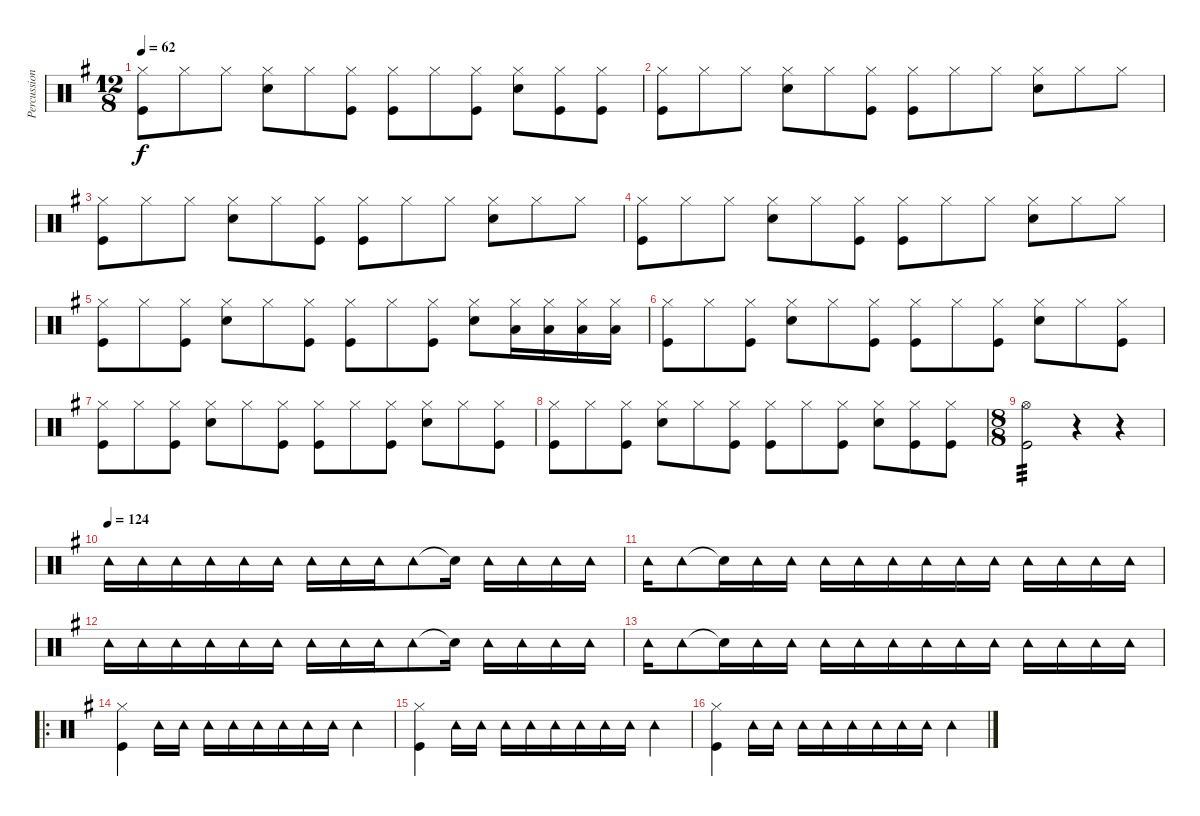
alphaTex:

\track ("Percussions" "Percussion") {instrument percussion}
\staff {score}
\articulation defaults
\ts (12 8)
\tempo 62
\clef neutral
\ks g
("Hi-Hat (closed)" "Kick (hit)").8{dy f} "Hi-Hat (closed)".8 "Hi-Hat (closed)".8 ("Hi-Hat (closed)" "Snare (hit) 2").8 "Hi-Hat (closed)".8 ("Hi-Hat (closed)" "Kick (hit)").8 ("Hi-Hat (closed)" "Kick (hit)").8 "Hi-Hat (closed)".8 ("Hi-Hat (closed)" "Kick (hit)").8 ("Hi-Hat (closed)" "Snare (hit) 2").8 ("Hi-Hat (closed)" "Kick (hit)").8 ("Hi-Hat (closed)" "Kick (hit)").8 |
("Hi-Hat (closed)" "Kick (hit)").8 "Hi-Hat (closed)".8 "Hi-Hat (closed)".8 ("Hi-Hat (closed)" "Snare (hit) 2").8 "Hi-Hat (closed)".8 ("Hi-Hat (closed)" "Kick (hit)").8 ("Hi-Hat (closed)" "Kick (hit)").8 "Hi-Hat (closed)".8 "Hi-Hat (closed)".8 ("Hi-Hat (closed)" "Snare (hit) 2").8 "Hi-Hat (closed)".8 "Hi-Hat (closed)".8 |
("Hi-Hat (closed)" "Kick (hit)").8 "Hi-Hat (closed)".8 "Hi-Hat (closed)".8 ("Hi-Hat (closed)" "Snare (hit) 2").8 "Hi-Hat (closed)".8 ("Hi-Hat (closed)" "Kick (hit)").8 ("Hi-Hat (closed)" "Kick (hit)").8 "Hi-Hat (closed)".8 "Hi-Hat (closed)".8 ("Hi-Hat (closed)" "Snare (hit) 2").8 "Hi-Hat (closed)".8 "Hi-Hat (closed)".8 |
("Hi-Hat (closed)" "Kick (hit)").8 "Hi-Hat (closed)".8 "Hi-Hat (closed)".8 ("Hi-Hat (closed)" "Snare (hit) 2").8 "Hi-Hat (closed)".8 ("Hi-Hat (closed)" "Kick (hit)").8 ("Hi-Hat (closed)" "Kick (hit)").8 "Hi-Hat (closed)".8 "Hi-Hat (closed)".8 ("Hi-Hat (closed)" "Snare (hit) 2").8 "Hi-Hat (closed)".8 "Hi-Hat (closed)".8 |
("Hi-Hat (closed)" "Kick (hit)").8 "Hi-Hat (closed)".8 ("Hi-Hat (closed)" "Kick (hit)").8 ("Hi-Hat (closed)" "Snare (hit) 2").8 "Hi-Hat (closed)".8 ("Hi-Hat (closed)" "Kick (hit)").8 ("Hi-Hat (closed)" "Kick (hit)").8 "Hi-Hat (closed)".8 ("Hi-Hat (closed)" "Kick (hit)").8 ("Hi-Hat (closed)" "Snare (hit) 2").8 ("Hi-Hat (closed)" "Low Tom (hit)").16 ("Hi-Hat (closed)" "Low Tom (hit)").16 ("Hi-Hat (closed)" "Low Tom (hit)").16 ("Hi-Hat (closed)" "Low Tom (hit)").16 |
("Hi-Hat (closed)" "Kick (hit)").8 "Hi-Hat (closed)".8 ("Hi-Hat (closed)" "Kick (hit)").8 ("Hi-Hat (closed)" "Snare (hit) 2").8 "Hi-Hat (closed)".8 ("Hi-Hat (closed)" "Kick (hit)").8 ("Hi-Hat (closed)" "Kick (hit)").8 "Hi-Hat (closed)".8 ("Hi-Hat (closed)" "Kick (hit)").8 ("Hi-Hat (closed)" "Snare (hit) 2").8 "Hi-Hat (closed)".8 ("Hi-Hat (closed)" "Kick (hit)").8 |
("Hi-Hat (closed)" "Kick (hit)").8 "Hi-Hat (closed)".8 ("Hi-Hat (closed)" "Kick (hit)").8 ("Hi-Hat (closed)" "Snare (hit) 2").8 "Hi-Hat (closed)".8 ("Hi-Hat (closed)" "Kick (hit)").8 ("Hi-Hat (closed)" "Kick (hit)").8 "Hi-Hat (closed)".8 ("Hi-Hat (closed)" "Kick (hit)").8 ("Hi-Hat (closed)" "Snare (hit) 2").8 "Hi-Hat (closed)".8 ("Hi-Hat (closed)" "Kick (hit)").8 |
("Hi-Hat (closed)" "Kick (hit)").8 "Hi-Hat (closed)".8 ("Hi-Hat (closed)" "Kick (hit)").8 ("Hi-Hat (closed)" "Snare (hit) 2").8 "Hi-Hat (closed)".8 ("Hi-Hat (closed)" "Kick (hit)").8 ("Hi-Hat (closed)" "Kick (hit)").8 "Hi-Hat (closed)".8 ("Hi-Hat (closed)" "Kick (hit)").8 ("Hi-Hat (closed)" "Snare (hit) 2").8 ("Hi-Hat (closed)" "Kick (hit)").8 ("Hi-Hat (closed)" "Kick (hit)").8 |
\ts (8 8)
("Hi-Hat (open)" "Kick (hit)").2{tp 3} r.4 r.4 |
\tempo (124)
"Tambourine (hit)".16 "Tambourine (hit)".16 "Tambourine (hit)".16 "Tambourine (hit)".16 "Tambourine (hit)".16 "Tambourine (hit)".16 "Tambourine (hit)".16 "Tambourine (hit)".16 "Tambourine (hit)".16 "Tambourine (hit)".8 "Snare (hit)"{t}.16 "Tambourine (hit)".16 "Tambourine (hit)".16 "Tambourine (hit)".16 "Tambourine (hit)".16 |
"Tambourine (hit)".16 "Tambourine (hit)".8 "Snare (hit)"{t}.16 "Tambourine (hit)".16 "Tambourine (hit)".16 "Tambourine (hit)".16 "Tambourine (hit)".16 "Tambourine (hit)".16 "Tambourine (hit)".16 "Tambourine (hit)".16 "Tambourine (hit)".16 "Tambourine (hit)".16 "Tambourine (hit)".16 "Tambourine (hit)".16 "Tambourine (hit)".16 |
"Tambourine (hit)".16 "Tambourine (hit)".16 "Tambourine (hit)".16 "Tambourine (hit)".16 "Tambourine (hit)".16 "Tambourine (hit)".16 "Tambourine (hit)".16 "Tambourine (hit)".16 "Tambourine (hit)".16 "Tambourine (hit)".8 "Snare (hit)"{t}.16 "Tambourine (hit)".16 "Tambourine (hit)".16 "Tambourine (hit)".16 "Tambourine (hit)".16 |
"Tambourine (hit)".16 "Tambourine (hit)".8 "Snare (hit)"{t}.16 "Tambourine (hit)".16 "Tambourine (hit)".16 "Tambourine (hit)".16 "Tambourine (hit)".16 "Tambourine (hit)".16 "Tambourine (hit)".16 "Tambourine (hit)".16 "Tambourine (hit)".16 "Tambourine (hit)".16 "Tambourine (hit)".16 "Tambourine (hit)".16 "Tambourine (hit)".16 |
\ro
("Hi-Hat (closed)" "Kick (hit)").4 "Tambourine (hit)".16 "Tambourine (hit)".16 "Tambourine (hit)".16 "Tambourine (hit)".16 "Tambourine (hit)".16 "Tambourine (hit)".16 "Tambourine (hit)".16 "Tambourine (hit)".16 "Tambourine (hit)".4 |
("Hi-Hat (closed)" "Kick (hit)").4 "Tambourine (hit)".16 "Tambourine (hit)".16 "Tambourine (hit)".16 "Tambourine (hit)".16 "Tambourine (hit)".16 "Tambourine (hit)".16 "Tambourine (hit)".16 "Tambourine (hit)".16 "Tambourine (hit)".4 |
("Hi-Hat (closed)" "Kick (hit)").4 "Tambourine (hit)".16 "Tambourine (hit)".16 "Tambourine (hit)".16 "Tambourine (hit)".16 "Tambourine (hit)".16 "Tambourine (hit)".16 "Tambourine (hit)".16 "Tambourine (hit)".16 "Tambourine (hit)".4
